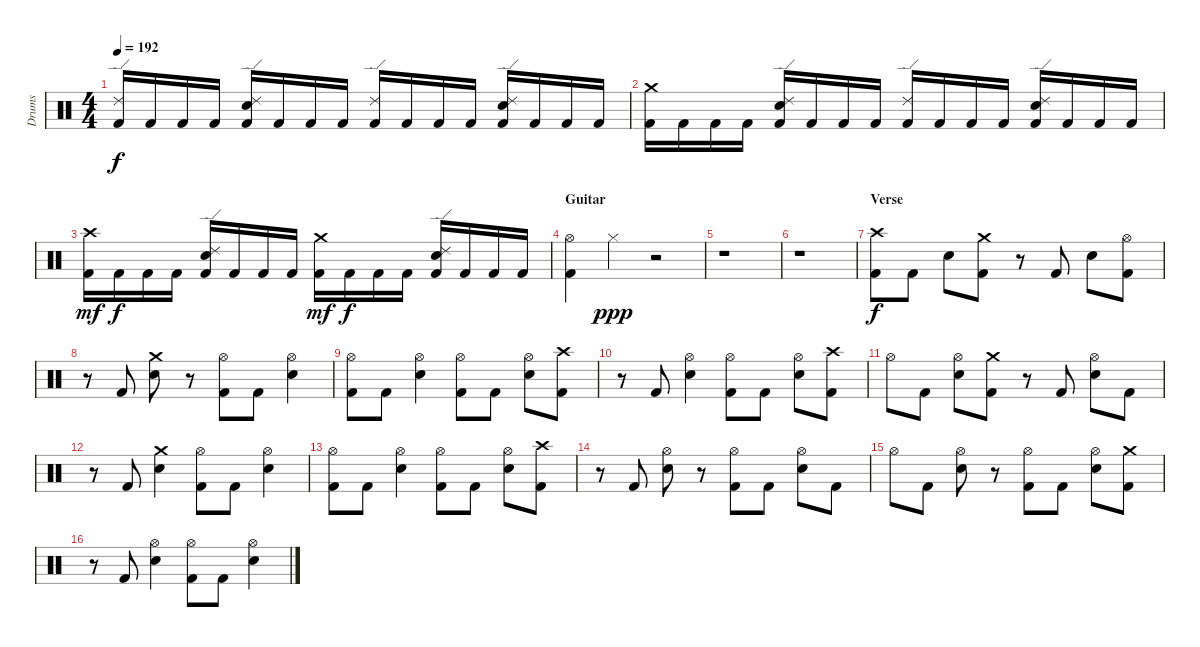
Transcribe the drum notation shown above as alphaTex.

\track ("Drums" "Drums") {instrument percussion}
\staff {score}
\articulation defaults
\ts (4 4)
\tempo 192
\clef neutral
\ks c
("Kick (hit) 2" "Ride (edge) 2").16{dy f} "Kick (hit) 2".16 "Kick (hit) 2".16 "Kick (hit) 2".16 ("Kick (hit) 2" "Electric Snare (hit)" "Ride (edge) 2").16 "Kick (hit) 2".16 "Kick (hit) 2".16 "Kick (hit) 2".16 ("Kick (hit) 2" "Ride (edge) 2").16 "Kick (hit) 2".16 "Kick (hit) 2".16 "Kick (hit) 2".16 ("Kick (hit) 2" "Electric Snare (hit)" "Ride (edge) 2").16 "Kick (hit) 2".16 "Kick (hit) 2".16 "Kick (hit) 2".16 |
("Kick (hit) 2" "Crash medium (hit)").16 "Kick (hit) 2".16 "Kick (hit) 2".16 "Kick (hit) 2".16 ("Kick (hit) 2" "Electric Snare (hit)" "Ride (edge) 2").16 "Kick (hit) 2".16 "Kick (hit) 2".16 "Kick (hit) 2".16 ("Kick (hit) 2" "Ride (edge) 2").16 "Kick (hit) 2".16 "Kick (hit) 2".16 "Kick (hit) 2".16 ("Kick (hit) 2" "Electric Snare (hit)" "Ride (edge) 2").16 "Kick (hit) 2".16 "Kick (hit) 2".16 "Kick (hit) 2".16 |
("Kick (hit) 2" "Crash high (hit)").16{dy mf} "Kick (hit) 2".16{dy f} "Kick (hit) 2".16 "Kick (hit) 2".16 ("Kick (hit) 2" "Electric Snare (hit)" "Ride (edge) 2").16 "Kick (hit) 2".16 "Kick (hit) 2".16 "Kick (hit) 2".16 ("Kick (hit) 2" "Crash medium (hit)").16{dy mf} "Kick (hit) 2".16{dy f} "Kick (hit) 2".16 "Kick (hit) 2".16 ("Kick (hit) 2" "Electric Snare (hit)" "Ride (edge) 2").16 "Kick (hit) 2".16 "Kick (hit) 2".16 "Kick (hit) 2".16 |
\section ("" "Guitar")
("Kick (hit) 2" "Hi-Hat (open)").4 "Hi-Hat (closed)".4{dy ppp} r.2 |
r.1 |
r.1 |
\section ("" "Verse")
("Kick (hit) 2" "Crash high (hit)").8{dy f} "Kick (hit) 2".8 "Electric Snare (hit)".8 ("Kick (hit) 2" "Crash medium (hit)").8 r.8 "Kick (hit) 2".8 "Electric Snare (hit)".8 ("Kick (hit) 2" "Hi-Hat (open)").8 |
r.8 "Kick (hit) 2".8 ("Electric Snare (hit)" "Crash medium (hit)").8 r.8 ("Kick (hit) 2" "Hi-Hat (open)").8 "Kick (hit) 2".8 ("Electric Snare (hit)" "Hi-Hat (open)").4 |
("Kick (hit) 2" "Hi-Hat (open)").8 "Kick (hit) 2".8 ("Electric Snare (hit)" "Hi-Hat (open)").4 ("Kick (hit) 2" "Hi-Hat (open)").8 "Kick (hit) 2".8 ("Electric Snare (hit)" "Hi-Hat (open)").8 ("Kick (hit) 2" "Crash high (hit)").8 |
r.8 "Kick (hit) 2".8 ("Electric Snare (hit)" "Hi-Hat (open)").4 ("Kick (hit) 2" "Hi-Hat (open)").8 "Kick (hit) 2".8 ("Electric Snare (hit)" "Hi-Hat (open)").8 ("Kick (hit) 2" "Crash high (hit)").8 |
"Hi-Hat (open)".8 "Kick (hit) 2".8 ("Electric Snare (hit)" "Hi-Hat (open)").8 ("Kick (hit) 2" "Crash medium (hit)").8 r.8 "Kick (hit) 2".8 ("Electric Snare (hit)" "Hi-Hat (open)").8 "Kick (hit) 2".8 |
r.8 "Kick (hit) 2".8 ("Electric Snare (hit)" "Crash medium (hit)").4 ("Kick (hit) 2" "Hi-Hat (open)").8 "Kick (hit) 2".8 ("Electric Snare (hit)" "Hi-Hat (open)").4 |
("Kick (hit) 2" "Hi-Hat (open)").8 "Kick (hit) 2".8 ("Electric Snare (hit)" "Hi-Hat (open)").4 ("Kick (hit) 2" "Hi-Hat (open)").8 "Kick (hit) 2".8 ("Electric Snare (hit)" "Hi-Hat (open)").8 ("Kick (hit) 2" "Crash high (hit)").8 |
r.8 "Kick (hit) 2".8 ("Electric Snare (hit)" "Hi-Hat (open)").8 r.8 ("Kick (hit) 2" "Hi-Hat (open)").8 "Kick (hit) 2".8 ("Electric Snare (hit)" "Hi-Hat (open)").8 "Kick (hit) 2".8 |
"Hi-Hat (open)".8 "Kick (hit) 2".8 ("Electric Snare (hit)" "Hi-Hat (open)").8 r.8 ("Kick (hit) 2" "Hi-Hat (open)").8 "Kick (hit) 2".8 ("Electric Snare (hit)" "Hi-Hat (open)").8 ("Kick (hit) 2" "Crash medium (hit)").8 |
r.8 "Kick (hit) 2".8 ("Electric Snare (hit)" "Hi-Hat (open)").4 ("Kick (hit) 2" "Hi-Hat (open)").8 "Kick (hit) 2".8 ("Electric Snare (hit)" "Hi-Hat (open)").4
